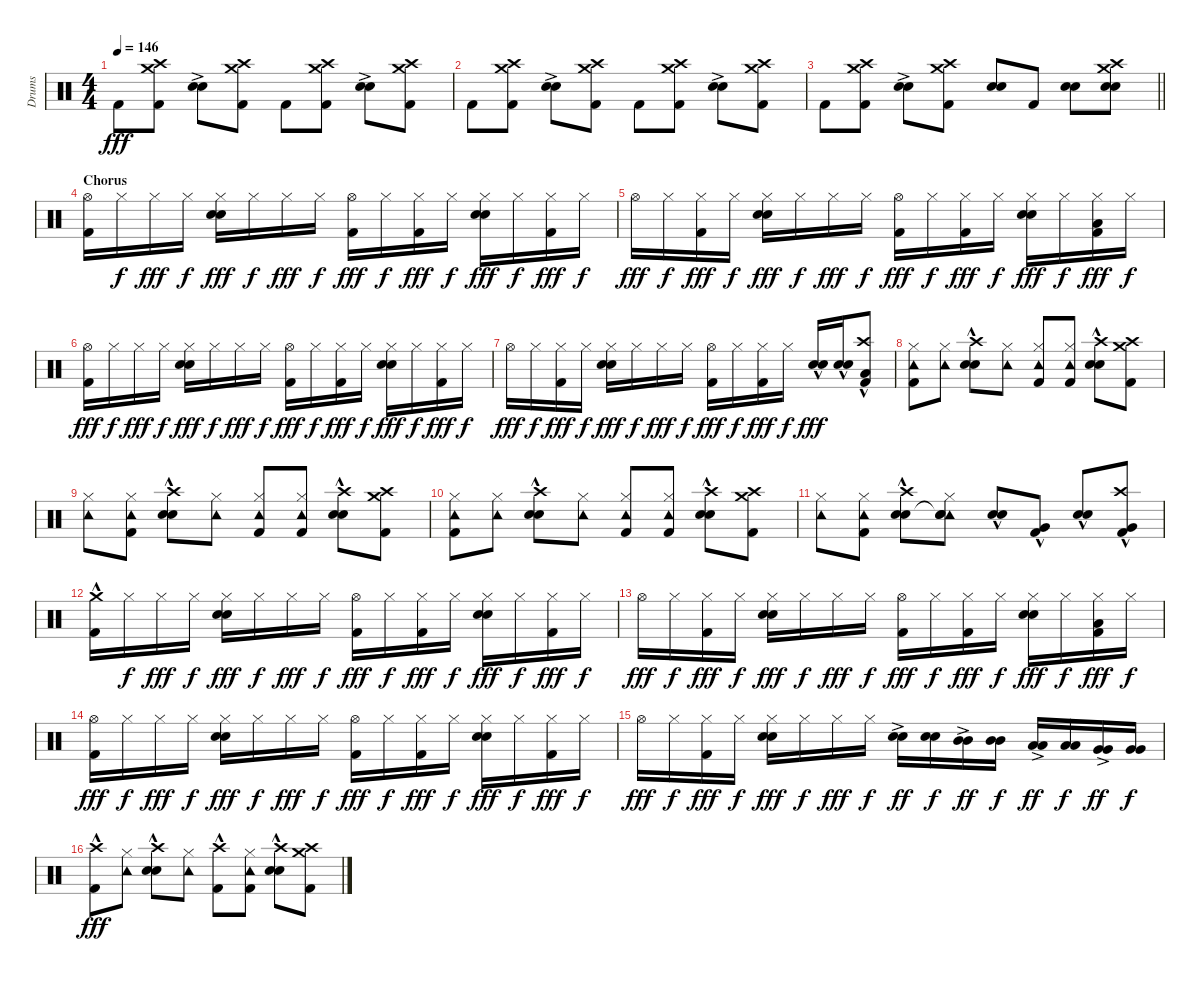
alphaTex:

\track ("Drums" "Drums") {instrument percussion}
\staff {score}
\articulation defaults
\ts (4 4)
\tempo 146
\clef neutral
\ks c "Kick (hit) 2".8{dy fff}
("Crash high (hit)" "Crash medium (hit)" "Kick (hit) 2").8 ("Electric Snare (hit)"{ac} "Electric Snare (hit)"{ac}).8 ("Crash high (hit)" "Crash medium (hit)" "Kick (hit) 2").8 "Kick (hit) 2".8 ("Crash high (hit)" "Crash medium (hit)" "Kick (hit) 2").8 ("Electric Snare (hit)"{ac} "Electric Snare (hit)"{ac}).8 ("Crash high (hit)" "Crash medium (hit)" "Kick (hit) 2").8 |
"Kick (hit) 2".8 ("Crash high (hit)" "Crash medium (hit)" "Kick (hit) 2").8 ("Electric Snare (hit)"{ac} "Electric Snare (hit)"{ac}).8 ("Crash high (hit)" "Crash medium (hit)" "Kick (hit) 2").8 "Kick (hit) 2".8 ("Crash high (hit)" "Crash medium (hit)" "Kick (hit) 2").8 ("Electric Snare (hit)"{ac} "Electric Snare (hit)"{ac}).8 ("Crash high (hit)" "Crash medium (hit)" "Kick (hit) 2").8 |
\barLineRight lightlight "Kick (hit) 2".8
("Crash high (hit)" "Crash medium (hit)" "Kick (hit) 2").8 ("Electric Snare (hit)"{ac} "Electric Snare (hit)"{ac}).8 ("Crash high (hit)" "Crash medium (hit)" "Kick (hit) 2").8 ("Electric Snare (hit)" "Electric Snare (hit)").8 "Kick (hit) 2".8 ("Electric Snare (hit)" "Electric Snare (hit)").8 ("Crash high (hit)" "Crash medium (hit)" "Electric Snare (hit)" "Electric Snare (hit)").8 |
\section ("" "Chorus")
("Hi-Hat (open)" "Kick (hit) 2").16 "Hi-Hat (closed)".16{dy f} "Hi-Hat (closed)".16{dy fff} "Hi-Hat (closed)".16{dy f} ("Hi-Hat (closed)" "Electric Snare (hit)" "Electric Snare (hit)").16{dy fff} "Hi-Hat (closed)".16{dy f} "Hi-Hat (closed)".16{dy fff} "Hi-Hat (closed)".16{dy f} ("Hi-Hat (open)" "Kick (hit) 2").16{dy fff} "Hi-Hat (closed)".16{dy f} ("Hi-Hat (closed)" "Kick (hit) 2").16{dy fff} "Hi-Hat (closed)".16{dy f} ("Hi-Hat (closed)" "Electric Snare (hit)" "Electric Snare (hit)").16{dy fff} "Hi-Hat (closed)".16{dy f} ("Hi-Hat (closed)" "Kick (hit) 2").16{dy fff} "Hi-Hat (closed)".16{dy f} |
"Hi-Hat (open)".16{dy fff} "Hi-Hat (closed)".16{dy f} ("Hi-Hat (closed)" "Kick (hit) 2").16{dy fff} "Hi-Hat (closed)".16{dy f} ("Hi-Hat (closed)" "Electric Snare (hit)" "Electric Snare (hit)").16{dy fff} "Hi-Hat (closed)".16{dy f} "Hi-Hat (closed)".16{dy fff} "Hi-Hat (closed)".16{dy f} ("Hi-Hat (open)" "Kick (hit) 2").16{dy fff} "Hi-Hat (closed)".16{dy f} ("Hi-Hat (closed)" "Kick (hit) 2").16{dy fff} "Hi-Hat (closed)".16{dy f} ("Hi-Hat (closed)" "Electric Snare (hit)" "Electric Snare (hit)").16{dy fff} "Hi-Hat (closed)".16{dy f} ("Hi-Hat (closed)" "Low Tom (hit)" "Kick (hit) 2").16{dy fff} "Hi-Hat (closed)".16{dy f} |
("Hi-Hat (open)" "Kick (hit) 2").16{dy fff} "Hi-Hat (closed)".16{dy f} "Hi-Hat (closed)".16{dy fff} "Hi-Hat (closed)".16{dy f} ("Hi-Hat (closed)" "Electric Snare (hit)" "Electric Snare (hit)").16{dy fff} "Hi-Hat (closed)".16{dy f} "Hi-Hat (closed)".16{dy fff} "Hi-Hat (closed)".16{dy f} ("Hi-Hat (open)" "Kick (hit) 2").16{dy fff} "Hi-Hat (closed)".16{dy f} ("Hi-Hat (closed)" "Kick (hit) 2").16{dy fff} "Hi-Hat (closed)".16{dy f} ("Hi-Hat (closed)" "Electric Snare (hit)" "Electric Snare (hit)").16{dy fff} "Hi-Hat (closed)".16{dy f} ("Hi-Hat (closed)" "Kick (hit) 2").16{dy fff} "Hi-Hat (closed)".16{dy f} |
"Hi-Hat (open)".16{dy fff} "Hi-Hat (closed)".16{dy f} ("Hi-Hat (closed)" "Kick (hit) 2").16{dy fff} "Hi-Hat (closed)".16{dy f} ("Hi-Hat (closed)" "Electric Snare (hit)" "Electric Snare (hit)").16{dy fff} "Hi-Hat (closed)".16{dy f} "Hi-Hat (closed)".16{dy fff} "Hi-Hat (closed)".16{dy f} ("Hi-Hat (open)" "Kick (hit) 2").16{dy fff} "Hi-Hat (closed)".16{dy f} ("Hi-Hat (closed)" "Kick (hit) 2").16{dy fff} "Hi-Hat (closed)".16{dy f} ("Electric Snare (hit)"{hac} "Electric Snare (hit)"{hac}).16{dy fff} ("Electric Snare (hit)"{hac} "Electric Snare (hit)"{hac}).16 ("Crash high (hit)"{hac} "Low Tom (hit)"{hac} "Kick (hit) 2"{hac}).8 |
("Tambourine (hit)" "Hi-Hat (closed)" "Kick (hit) 2").8 ("Tambourine (hit)" "Hi-Hat (closed)").8 ("Crash high (hit)"{hac} "Electric Snare (hit)" "Electric Snare (hit)").8 ("Tambourine (hit)" "Hi-Hat (closed)").8 ("Tambourine (hit)" "Hi-Hat (closed)" "Kick (hit) 2").8 ("Tambourine (hit)" "Hi-Hat (closed)" "Kick (hit) 2").8 ("Crash high (hit)"{hac} "Electric Snare (hit)" "Electric Snare (hit)").8 ("Crash high (hit)" "Crash medium (hit)" "Kick (hit) 2").8 |
("Tambourine (hit)" "Hi-Hat (closed)").8 ("Tambourine (hit)" "Hi-Hat (closed)" "Kick (hit) 2").8 ("Crash high (hit)"{hac} "Electric Snare (hit)" "Electric Snare (hit)").8 ("Tambourine (hit)" "Hi-Hat (closed)").8 ("Tambourine (hit)" "Hi-Hat (closed)" "Kick (hit) 2").8 ("Tambourine (hit)" "Hi-Hat (closed)" "Kick (hit) 2").8 ("Crash high (hit)"{hac} "Electric Snare (hit)" "Electric Snare (hit)").8 ("Crash high (hit)" "Crash medium (hit)" "Kick (hit) 2").8 |
("Tambourine (hit)" "Hi-Hat (closed)" "Kick (hit) 2").8 ("Tambourine (hit)" "Hi-Hat (closed)").8 ("Crash high (hit)"{hac} "Electric Snare (hit)" "Electric Snare (hit)").8 ("Tambourine (hit)" "Hi-Hat (closed)").8 ("Tambourine (hit)" "Hi-Hat (closed)" "Kick (hit) 2").8 ("Tambourine (hit)" "Hi-Hat (closed)" "Kick (hit) 2").8 ("Crash high (hit)"{hac} "Electric Snare (hit)" "Electric Snare (hit)").8 ("Crash high (hit)" "Crash medium (hit)" "Kick (hit) 2").8 |
("Tambourine (hit)" "Hi-Hat (closed)").8 ("Tambourine (hit)" "Hi-Hat (closed)" "Kick (hit) 2").8 ("Crash high (hit)"{hac} "Electric Snare (hit)" "Electric Snare (hit)").8 ("Tambourine (hit)" "Hi-Hat (closed)" "Snare (hit)"{t} "Snare (hit)").8 ("Electric Snare (hit)"{hac} "Electric Snare (hit)"{hac}).8 ("Very Low Tom (hit)"{hac} "Kick (hit) 2"{hac}).8 ("Electric Snare (hit)"{hac} "Electric Snare (hit)"{hac}).8 ("Crash high (hit)"{hac} "Very Low Tom (hit)"{hac} "Kick (hit) 2"{hac}).8 |
("Crash medium (hit)"{hac} "Kick (hit) 2"{hac}).16 "Hi-Hat (closed)".16{dy f} "Hi-Hat (closed)".16{dy fff} "Hi-Hat (closed)".16{dy f} ("Hi-Hat (closed)" "Electric Snare (hit)" "Electric Snare (hit)").16{dy fff} "Hi-Hat (closed)".16{dy f} "Hi-Hat (closed)".16{dy fff} "Hi-Hat (closed)".16{dy f} ("Hi-Hat (open)" "Kick (hit) 2").16{dy fff} "Hi-Hat (closed)".16{dy f} ("Hi-Hat (closed)" "Kick (hit) 2").16{dy fff} "Hi-Hat (closed)".16{dy f} ("Hi-Hat (closed)" "Electric Snare (hit)" "Electric Snare (hit)").16{dy fff} "Hi-Hat (closed)".16{dy f} ("Hi-Hat (closed)" "Kick (hit) 2").16{dy fff} "Hi-Hat (closed)".16{dy f} |
"Hi-Hat (open)".16{dy fff} "Hi-Hat (closed)".16{dy f} ("Hi-Hat (closed)" "Kick (hit) 2").16{dy fff} "Hi-Hat (closed)".16{dy f} ("Hi-Hat (closed)" "Electric Snare (hit)" "Electric Snare (hit)").16{dy fff} "Hi-Hat (closed)".16{dy f} "Hi-Hat (closed)".16{dy fff} "Hi-Hat (closed)".16{dy f} ("Hi-Hat (open)" "Kick (hit) 2").16{dy fff} "Hi-Hat (closed)".16{dy f} ("Hi-Hat (closed)" "Kick (hit) 2").16{dy fff} "Hi-Hat (closed)".16{dy f} ("Hi-Hat (closed)" "Electric Snare (hit)" "Electric Snare (hit)").16{dy fff} "Hi-Hat (closed)".16{dy f} ("Hi-Hat (closed)" "Low Tom (hit)" "Kick (hit) 2").16{dy fff} "Hi-Hat (closed)".16{dy f} |
("Hi-Hat (open)" "Kick (hit) 2").16{dy fff} "Hi-Hat (closed)".16{dy f} "Hi-Hat (closed)".16{dy fff} "Hi-Hat (closed)".16{dy f} ("Hi-Hat (closed)" "Electric Snare (hit)" "Electric Snare (hit)").16{dy fff} "Hi-Hat (closed)".16{dy f} "Hi-Hat (closed)".16{dy fff} "Hi-Hat (closed)".16{dy f} ("Hi-Hat (open)" "Kick (hit) 2").16{dy fff} "Hi-Hat (closed)".16{dy f} ("Hi-Hat (closed)" "Kick (hit) 2").16{dy fff} "Hi-Hat (closed)".16{dy f} ("Hi-Hat (closed)" "Electric Snare (hit)" "Electric Snare (hit)").16{dy fff} "Hi-Hat (closed)".16{dy f} ("Hi-Hat (closed)" "Kick (hit) 2").16{dy fff} "Hi-Hat (closed)".16{dy f} |
"Hi-Hat (open)".16{dy fff} "Hi-Hat (closed)".16{dy f} ("Hi-Hat (closed)" "Kick (hit) 2").16{dy fff} "Hi-Hat (closed)".16{dy f} ("Hi-Hat (closed)" "Electric Snare (hit)" "Electric Snare (hit)").16{dy fff} "Hi-Hat (closed)".16{dy f} "Hi-Hat (closed)".16{dy fff} "Hi-Hat (closed)".16{dy f} ("Electric Snare (hit)"{ac} "Electric Snare (hit)"{ac}).16{dy ff} ("Electric Snare (hit)" "Electric Snare (hit)").16{dy f} ("Mid Tom (hit)"{ac} "Mid Tom (hit)"{ac}).16{dy ff} ("Mid Tom (hit)" "Mid Tom (hit)").16{dy f} ("Low Tom (hit)"{ac} "Low Tom (hit)"{ac}).16{dy ff} ("Low Tom (hit)" "Low Tom (hit)").16{dy f} ("Very Low Tom (hit)"{ac} "Very Low Tom (hit)"{ac}).16{dy ff} ("Very Low Tom (hit)" "Very Low Tom (hit)").16{dy f} |
("Crash high (hit)"{hac} "Kick (hit) 2").8{dy fff} ("Tambourine (hit)" "Hi-Hat (closed)").8 ("Crash high (hit)"{hac} "Electric Snare (hit)" "Electric Snare (hit)").8 ("Tambourine (hit)" "Hi-Hat (closed)").8 ("Crash high (hit)"{hac} "Kick (hit) 2").8 ("Tambourine (hit)" "Hi-Hat (closed)" "Kick (hit) 2").8 ("Crash high (hit)"{hac} "Electric Snare (hit)" "Electric Snare (hit)").8 ("Crash high (hit)" "Crash medium (hit)" "Kick (hit) 2").8
